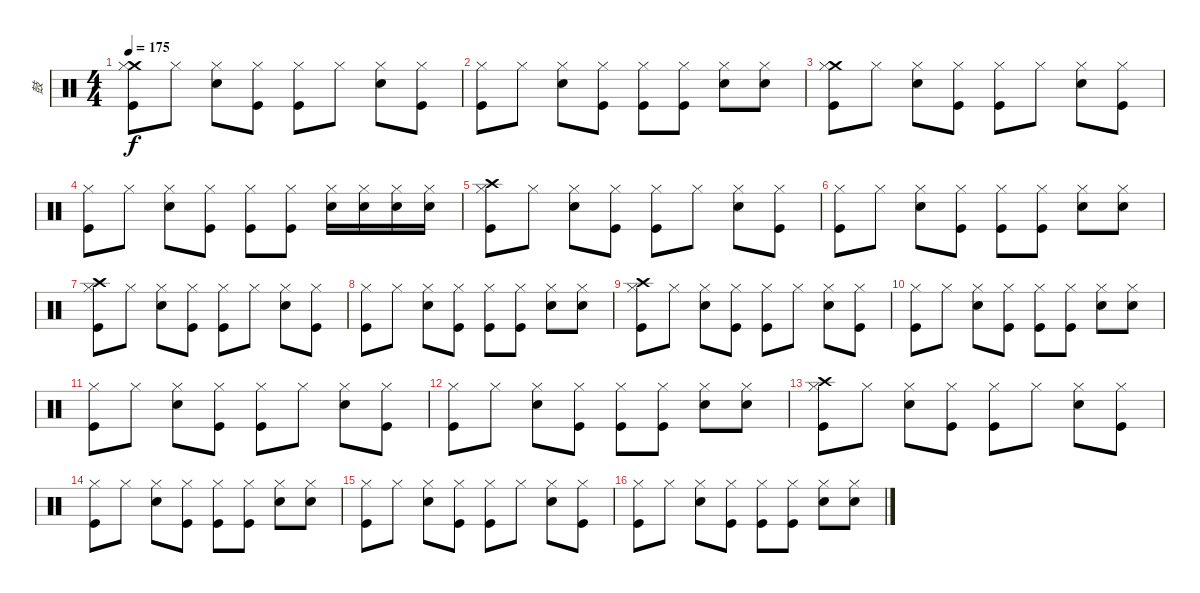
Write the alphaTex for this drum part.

\track ("鼓" "鼓") {instrument percussion}
\staff {score}
\articulation defaults
\ts (4 4)
\tempo 175
\clef neutral
\ks c
("Crash medium (hit)" "Hi-Hat (closed)" "Kick (hit)").8{dy f} "Hi-Hat (closed)".8 ("Hi-Hat (closed)" "Snare (hit) 2").8 ("Hi-Hat (closed)" "Kick (hit)").8 ("Hi-Hat (closed)" "Kick (hit)").8 "Hi-Hat (closed)".8 ("Hi-Hat (closed)" "Snare (hit) 2").8 ("Hi-Hat (closed)" "Kick (hit)").8 |
("Hi-Hat (closed)" "Kick (hit)").8 "Hi-Hat (closed)".8 ("Hi-Hat (closed)" "Snare (hit) 2").8 ("Hi-Hat (closed)" "Kick (hit)").8 ("Hi-Hat (closed)" "Kick (hit)").8 ("Hi-Hat (closed)" "Kick (hit)").8 ("Hi-Hat (closed)" "Snare (hit) 2").8 ("Hi-Hat (closed)" "Snare (hit) 2").8 |
("Crash medium (hit)" "Hi-Hat (closed)" "Kick (hit)").8 "Hi-Hat (closed)".8 ("Hi-Hat (closed)" "Snare (hit) 2").8 ("Hi-Hat (closed)" "Kick (hit)").8 ("Hi-Hat (closed)" "Kick (hit)").8 "Hi-Hat (closed)".8 ("Hi-Hat (closed)" "Snare (hit) 2").8 ("Hi-Hat (closed)" "Kick (hit)").8 |
("Hi-Hat (closed)" "Kick (hit)").8 "Hi-Hat (closed)".8 ("Hi-Hat (closed)" "Snare (hit) 2").8 ("Hi-Hat (closed)" "Kick (hit)").8 ("Hi-Hat (closed)" "Kick (hit)").8 ("Hi-Hat (closed)" "Kick (hit)").8 ("Hi-Hat (closed)" "Snare (hit) 2").16 ("Hi-Hat (closed)" "Snare (hit) 2").16 ("Hi-Hat (closed)" "Snare (hit) 2").16 ("Hi-Hat (closed)" "Snare (hit) 2").16 |
("Crash high (hit)" "Hi-Hat (closed)" "Kick (hit)").8 "Hi-Hat (closed)".8 ("Hi-Hat (closed)" "Snare (hit) 2").8 ("Hi-Hat (closed)" "Kick (hit)").8 ("Hi-Hat (closed)" "Kick (hit)").8 "Hi-Hat (closed)".8 ("Hi-Hat (closed)" "Snare (hit) 2").8 ("Hi-Hat (closed)" "Kick (hit)").8 |
("Hi-Hat (closed)" "Kick (hit)").8 "Hi-Hat (closed)".8 ("Hi-Hat (closed)" "Snare (hit) 2").8 ("Hi-Hat (closed)" "Kick (hit)").8 ("Hi-Hat (closed)" "Kick (hit)").8 ("Hi-Hat (closed)" "Kick (hit)").8 ("Hi-Hat (closed)" "Snare (hit) 2").8 ("Hi-Hat (closed)" "Snare (hit) 2").8 |
("Crash high (hit)" "Hi-Hat (closed)" "Kick (hit)").8 "Hi-Hat (closed)".8 ("Hi-Hat (closed)" "Snare (hit) 2").8 ("Hi-Hat (closed)" "Kick (hit)").8 ("Hi-Hat (closed)" "Kick (hit)").8 "Hi-Hat (closed)".8 ("Hi-Hat (closed)" "Snare (hit) 2").8 ("Hi-Hat (closed)" "Kick (hit)").8 |
("Hi-Hat (closed)" "Kick (hit)").8 "Hi-Hat (closed)".8 ("Hi-Hat (closed)" "Snare (hit) 2").8 ("Hi-Hat (closed)" "Kick (hit)").8 ("Hi-Hat (closed)" "Kick (hit)").8 ("Hi-Hat (closed)" "Kick (hit)").8 ("Hi-Hat (closed)" "Snare (hit) 2").8 ("Hi-Hat (closed)" "Snare (hit) 2").8 |
("Crash high (hit)" "Hi-Hat (closed)" "Kick (hit)").8 "Hi-Hat (closed)".8 ("Hi-Hat (closed)" "Snare (hit) 2").8 ("Hi-Hat (closed)" "Kick (hit)").8 ("Hi-Hat (closed)" "Kick (hit)").8 "Hi-Hat (closed)".8 ("Hi-Hat (closed)" "Snare (hit) 2").8 ("Hi-Hat (closed)" "Kick (hit)").8 |
("Hi-Hat (closed)" "Kick (hit)").8 "Hi-Hat (closed)".8 ("Hi-Hat (closed)" "Snare (hit) 2").8 ("Hi-Hat (closed)" "Kick (hit)").8 ("Hi-Hat (closed)" "Kick (hit)").8 ("Hi-Hat (closed)" "Kick (hit)").8 ("Hi-Hat (closed)" "Snare (hit) 2").8 ("Hi-Hat (closed)" "Snare (hit) 2").8 |
("Hi-Hat (closed)" "Kick (hit)").8 "Hi-Hat (closed)".8 ("Hi-Hat (closed)" "Snare (hit) 2").8 ("Hi-Hat (closed)" "Kick (hit)").8 ("Hi-Hat (closed)" "Kick (hit)").8 "Hi-Hat (closed)".8 ("Hi-Hat (closed)" "Snare (hit) 2").8 ("Hi-Hat (closed)" "Kick (hit)").8 |
("Hi-Hat (closed)" "Kick (hit)").8 "Hi-Hat (closed)".8 ("Hi-Hat (closed)" "Snare (hit) 2").8 ("Hi-Hat (closed)" "Kick (hit)").8 ("Hi-Hat (closed)" "Kick (hit)").8 ("Hi-Hat (closed)" "Kick (hit)").8 ("Hi-Hat (closed)" "Snare (hit) 2").8 ("Hi-Hat (closed)" "Snare (hit) 2").8 |
("Crash high (hit)" "Hi-Hat (closed)" "Kick (hit)").8 "Hi-Hat (closed)".8 ("Hi-Hat (closed)" "Snare (hit) 2").8 ("Hi-Hat (closed)" "Kick (hit)").8 ("Hi-Hat (closed)" "Kick (hit)").8 "Hi-Hat (closed)".8 ("Hi-Hat (closed)" "Snare (hit) 2").8 ("Hi-Hat (closed)" "Kick (hit)").8 |
("Hi-Hat (closed)" "Kick (hit)").8 "Hi-Hat (closed)".8 ("Hi-Hat (closed)" "Snare (hit) 2").8 ("Hi-Hat (closed)" "Kick (hit)").8 ("Hi-Hat (closed)" "Kick (hit)").8 ("Hi-Hat (closed)" "Kick (hit)").8 ("Hi-Hat (closed)" "Snare (hit) 2").8 ("Hi-Hat (closed)" "Snare (hit) 2").8 |
("Hi-Hat (closed)" "Kick (hit)").8 "Hi-Hat (closed)".8 ("Hi-Hat (closed)" "Snare (hit) 2").8 ("Hi-Hat (closed)" "Kick (hit)").8 ("Hi-Hat (closed)" "Kick (hit)").8 "Hi-Hat (closed)".8 ("Hi-Hat (closed)" "Snare (hit) 2").8 ("Hi-Hat (closed)" "Kick (hit)").8 |
("Hi-Hat (closed)" "Kick (hit)").8 "Hi-Hat (closed)".8 ("Hi-Hat (closed)" "Snare (hit) 2").8 ("Hi-Hat (closed)" "Kick (hit)").8 ("Hi-Hat (closed)" "Kick (hit)").8 ("Hi-Hat (closed)" "Kick (hit)").8 ("Hi-Hat (closed)" "Snare (hit) 2").8 ("Hi-Hat (closed)" "Snare (hit) 2").8
